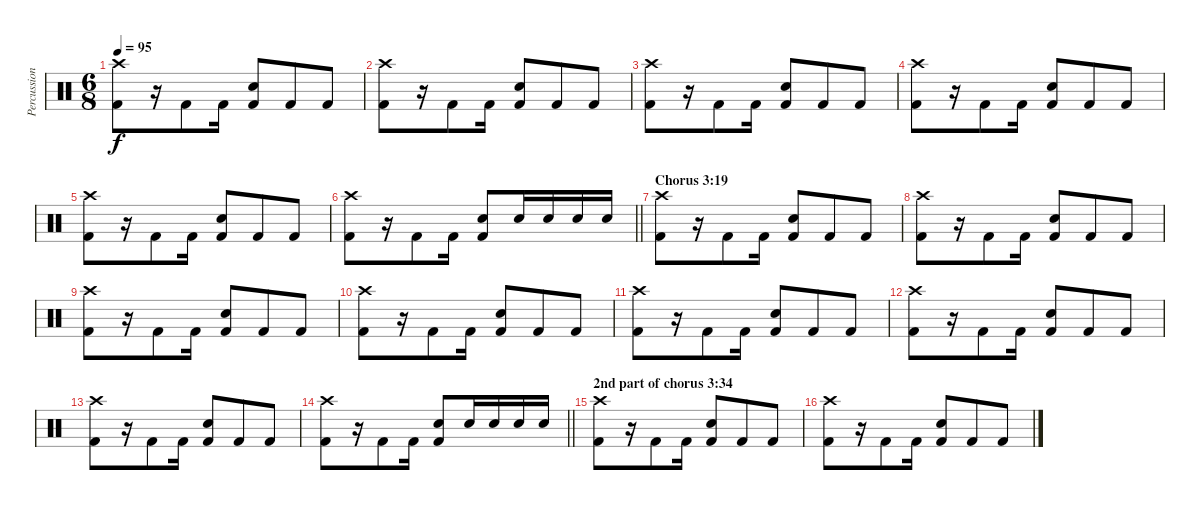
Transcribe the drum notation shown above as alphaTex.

\track ("Percussion" "Percussion") {instrument percussion}
\staff {score}
\articulation defaults
\ts (6 8)
\tempo 95
\clef neutral
\ks c
("Crash high (hit)" "Kick (hit) 2").8{dy f} r.16 "Kick (hit) 2".8 "Kick (hit) 2".16 ("Snare (hit) 2" "Kick (hit) 2").8 "Kick (hit) 2".8 "Kick (hit) 2".8 |
("Crash high (hit)" "Kick (hit) 2").8 r.16 "Kick (hit) 2".8 "Kick (hit) 2".16 ("Snare (hit) 2" "Kick (hit) 2").8 "Kick (hit) 2".8 "Kick (hit) 2".8 |
("Crash high (hit)" "Kick (hit) 2").8 r.16 "Kick (hit) 2".8 "Kick (hit) 2".16 ("Snare (hit) 2" "Kick (hit) 2").8 "Kick (hit) 2".8 "Kick (hit) 2".8 |
("Crash high (hit)" "Kick (hit) 2").8 r.16 "Kick (hit) 2".8 "Kick (hit) 2".16 ("Snare (hit) 2" "Kick (hit) 2").8 "Kick (hit) 2".8 "Kick (hit) 2".8 |
("Crash high (hit)" "Kick (hit) 2").8 r.16 "Kick (hit) 2".8 "Kick (hit) 2".16 ("Snare (hit) 2" "Kick (hit) 2").8 "Kick (hit) 2".8 "Kick (hit) 2".8 |
\barLineRight lightlight
("Crash high (hit)" "Kick (hit) 2").8 r.16 "Kick (hit) 2".8 "Kick (hit) 2".16 ("Snare (hit) 2" "Kick (hit) 2").8 "Snare (hit) 2".16 "Snare (hit) 2".16 "Snare (hit) 2".16 "Snare (hit) 2".16 |
\section ("" "Chorus 3:19")
("Crash high (hit)" "Kick (hit) 2").8 r.16 "Kick (hit) 2".8 "Kick (hit) 2".16 ("Snare (hit) 2" "Kick (hit) 2").8 "Kick (hit) 2".8 "Kick (hit) 2".8 |
("Crash high (hit)" "Kick (hit) 2").8 r.16 "Kick (hit) 2".8 "Kick (hit) 2".16 ("Snare (hit) 2" "Kick (hit) 2").8 "Kick (hit) 2".8 "Kick (hit) 2".8 |
("Crash high (hit)" "Kick (hit) 2").8 r.16 "Kick (hit) 2".8 "Kick (hit) 2".16 ("Snare (hit) 2" "Kick (hit) 2").8 "Kick (hit) 2".8 "Kick (hit) 2".8 |
("Crash high (hit)" "Kick (hit) 2").8 r.16 "Kick (hit) 2".8 "Kick (hit) 2".16 ("Snare (hit) 2" "Kick (hit) 2").8 "Kick (hit) 2".8 "Kick (hit) 2".8 |
("Crash high (hit)" "Kick (hit) 2").8 r.16 "Kick (hit) 2".8 "Kick (hit) 2".16 ("Snare (hit) 2" "Kick (hit) 2").8 "Kick (hit) 2".8 "Kick (hit) 2".8 |
("Crash high (hit)" "Kick (hit) 2").8 r.16 "Kick (hit) 2".8 "Kick (hit) 2".16 ("Snare (hit) 2" "Kick (hit) 2").8 "Kick (hit) 2".8 "Kick (hit) 2".8 |
("Crash high (hit)" "Kick (hit) 2").8 r.16 "Kick (hit) 2".8 "Kick (hit) 2".16 ("Snare (hit) 2" "Kick (hit) 2").8 "Kick (hit) 2".8 "Kick (hit) 2".8 |
\barLineRight lightlight
("Crash high (hit)" "Kick (hit) 2").8 r.16 "Kick (hit) 2".8 "Kick (hit) 2".16 ("Snare (hit) 2" "Kick (hit) 2").8 "Snare (hit) 2".16 "Snare (hit) 2".16 "Snare (hit) 2".16 "Snare (hit) 2".16 |
\section ("" "2nd part of chorus 3:34")
("Crash high (hit)" "Kick (hit) 2").8 r.16 "Kick (hit) 2".8 "Kick (hit) 2".16 ("Snare (hit) 2" "Kick (hit) 2").8 "Kick (hit) 2".8 "Kick (hit) 2".8 |
("Crash high (hit)" "Kick (hit) 2").8 r.16 "Kick (hit) 2".8 "Kick (hit) 2".16 ("Snare (hit) 2" "Kick (hit) 2").8 "Kick (hit) 2".8 "Kick (hit) 2".8
